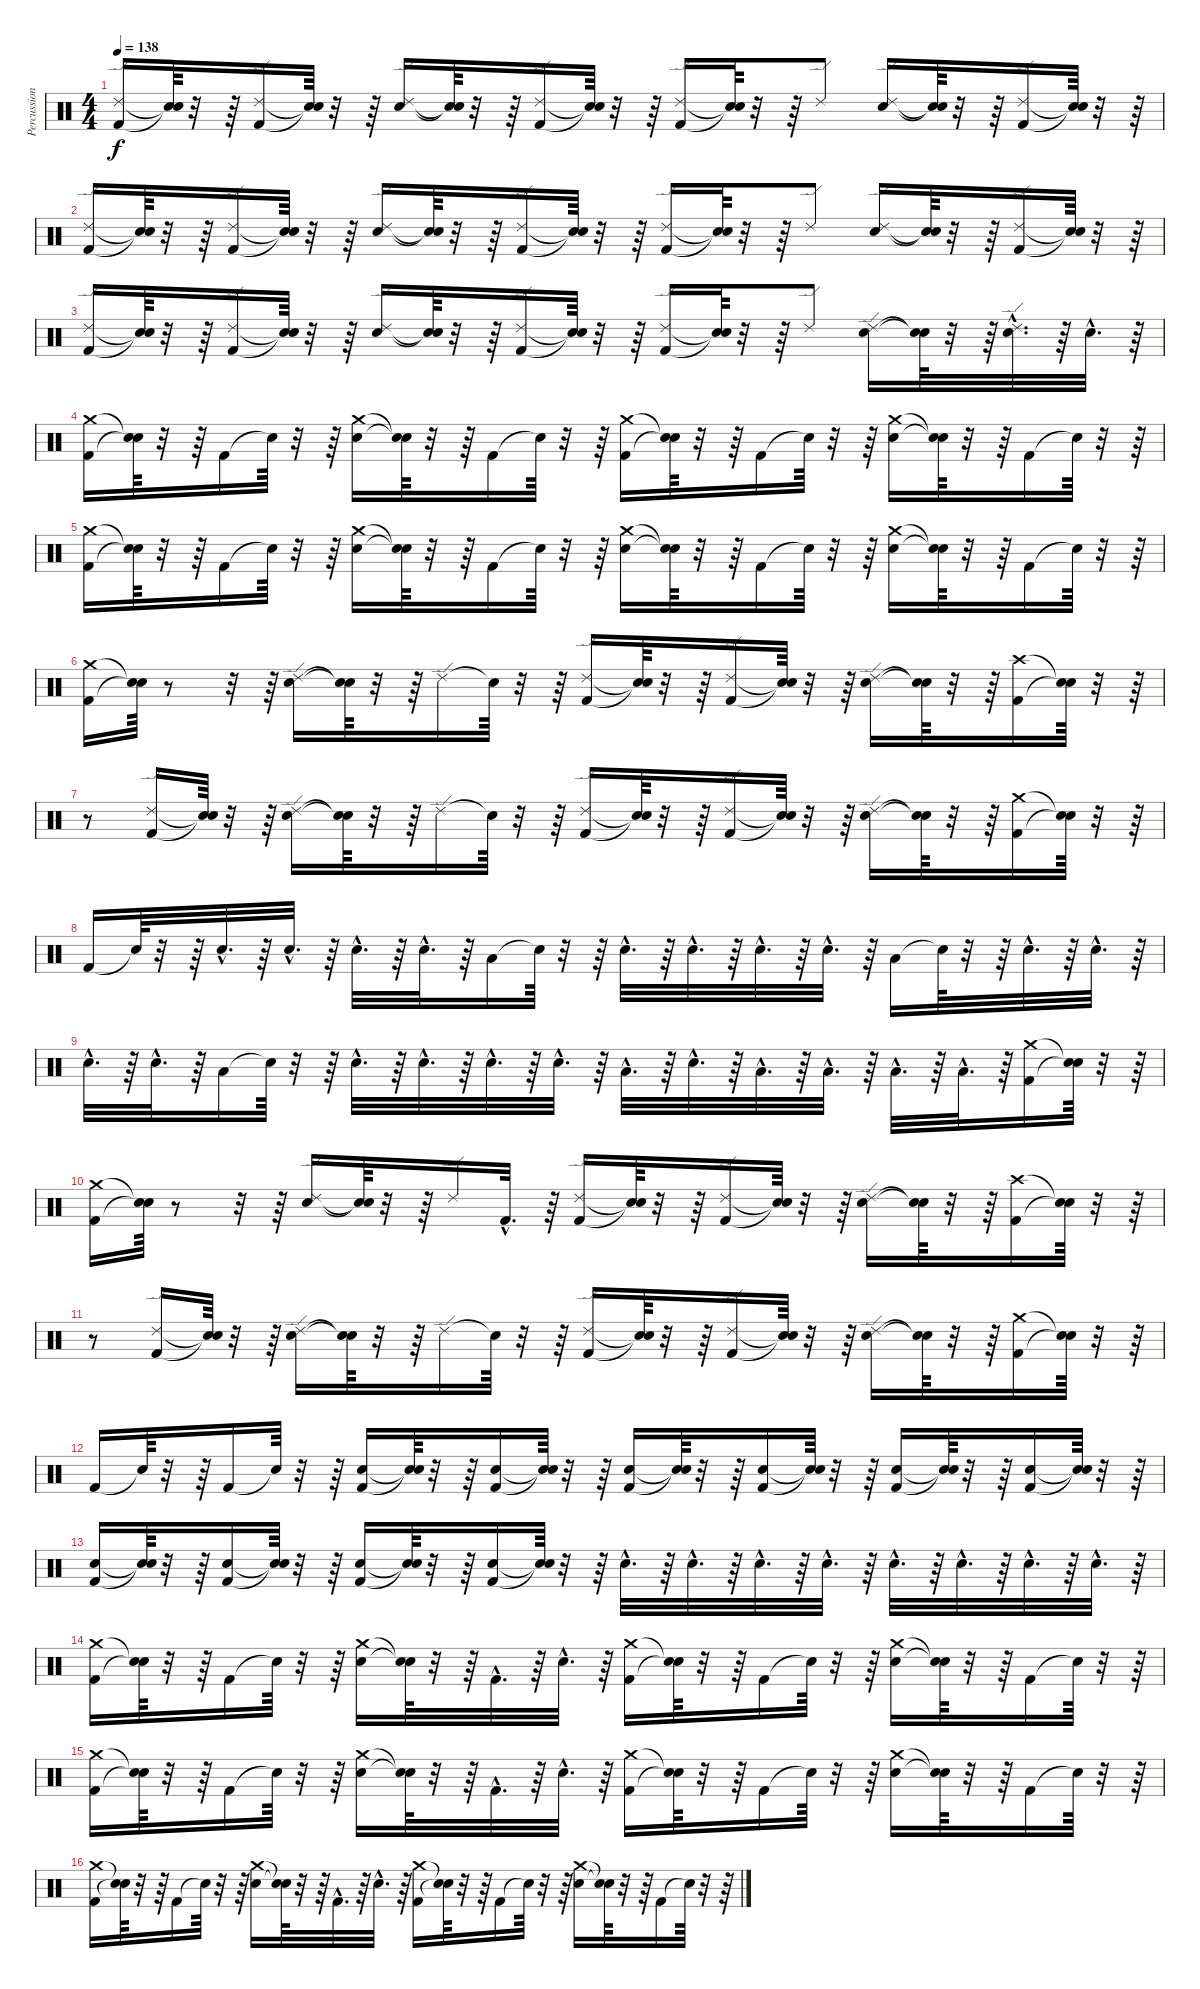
\track ("Percussions" "Percussion") {instrument percussion}
\staff {score}
\articulation defaults
\ts (4 4)
\tempo 138
\clef neutral
\ks c
("Kick (hit) 2" "Ride (edge) 2").16{dy f} ("Snare (hit)"{t} "Snare (hit)"{t}).64 r.32 r.64 ("Kick (hit) 2" "Ride (edge) 2").16 ("Snare (hit)"{t} "Snare (hit)"{t}).64 r.32 r.64 ("Electric Snare (hit)" "Ride (edge) 2").16 ("Snare (hit)"{t} "Snare (hit)"{t}).64 r.32 r.64 ("Kick (hit) 2" "Ride (edge) 2").16 ("Snare (hit)"{t} "Snare (hit)"{t}).64 r.32 r.64 ("Kick (hit) 2" "Ride (edge) 2").16 ("Snare (hit)"{t} "Snare (hit)"{t}).64 r.32 r.64 "Ride (edge) 2".8 ("Electric Snare (hit)" "Ride (edge) 2").16 ("Snare (hit)"{t} "Snare (hit)"{t}).64 r.32 r.64 ("Kick (hit) 2" "Ride (edge) 2").16 ("Snare (hit)"{t} "Snare (hit)"{t}).64 r.32 r.64 |
("Kick (hit) 2" "Ride (edge) 2").16 ("Snare (hit)"{t} "Snare (hit)"{t}).64 r.32 r.64 ("Kick (hit) 2" "Ride (edge) 2").16 ("Snare (hit)"{t} "Snare (hit)"{t}).64 r.32 r.64 ("Electric Snare (hit)" "Ride (edge) 2").16 ("Snare (hit)"{t} "Snare (hit)"{t}).64 r.32 r.64 ("Kick (hit) 2" "Ride (edge) 2").16 ("Snare (hit)"{t} "Snare (hit)"{t}).64 r.32 r.64 ("Kick (hit) 2" "Ride (edge) 2").16 ("Snare (hit)"{t} "Snare (hit)"{t}).64 r.32 r.64 "Ride (edge) 2".8 ("Electric Snare (hit)" "Ride (edge) 2").16 ("Snare (hit)"{t} "Snare (hit)"{t}).64 r.32 r.64 ("Kick (hit) 2" "Ride (edge) 2").16 ("Snare (hit)"{t} "Snare (hit)"{t}).64 r.32 r.64 |
("Kick (hit) 2" "Ride (edge) 2").16 ("Snare (hit)"{t} "Snare (hit)"{t}).64 r.32 r.64 ("Kick (hit) 2" "Ride (edge) 2").16 ("Snare (hit)"{t} "Snare (hit)"{t}).64 r.32 r.64 ("Electric Snare (hit)" "Ride (edge) 2").16 ("Snare (hit)"{t} "Snare (hit)"{t}).64 r.32 r.64 ("Kick (hit) 2" "Ride (edge) 2").16 ("Snare (hit)"{t} "Snare (hit)"{t}).64 r.32 r.64 ("Kick (hit) 2" "Ride (edge) 2").16 ("Snare (hit)"{t} "Snare (hit)"{t}).64 r.32 r.64 "Ride (edge) 2".8 ("Electric Snare (hit)" "Ride (edge) 2").16 ("Snare (hit)"{t} "Snare (hit)"{t}).64 r.32 r.64 ("Electric Snare (hit)"{hac} "Ride (edge) 2"{hac}).32{d} r.64 "Electric Snare (hit)"{hac}.32{d} r.64 |
("Crash medium (hit)" "Kick (hit) 2").16 ("Snare (hit)"{t} "Snare (hit)"{t}).64 r.32 r.64 "Kick (hit) 2".16 "Snare (hit)"{t}.64 r.32 r.64 ("Crash medium (hit)" "Electric Snare (hit)").16 ("Snare (hit)"{t} "Snare (hit)"{t}).64 r.32 r.64 "Kick (hit) 2".16 "Snare (hit)"{t}.64 r.32 r.64 ("Crash medium (hit)" "Kick (hit) 2").16 ("Snare (hit)"{t} "Snare (hit)"{t}).64 r.32 r.64 "Kick (hit) 2".16 "Snare (hit)"{t}.64 r.32 r.64 ("Crash medium (hit)" "Electric Snare (hit)").16 ("Snare (hit)"{t} "Snare (hit)"{t}).64 r.32 r.64 "Kick (hit) 2".16 "Snare (hit)"{t}.64 r.32 r.64 |
("Crash medium (hit)" "Kick (hit) 2").16 ("Snare (hit)"{t} "Snare (hit)"{t}).64 r.32 r.64 "Kick (hit) 2".16 "Snare (hit)"{t}.64 r.32 r.64 ("Crash medium (hit)" "Electric Snare (hit)").16 ("Snare (hit)"{t} "Snare (hit)"{t}).64 r.32 r.64 "Kick (hit) 2".16 "Snare (hit)"{t}.64 r.32 r.64 ("Electric Snare (hit)" "Crash medium (hit)").16 ("Snare (hit)"{t} "Snare (hit)"{t}).64 r.32 r.64 "Kick (hit) 2".16 "Snare (hit)"{t}.64 r.32 r.64 ("Electric Snare (hit)" "Crash medium (hit)").16 ("Snare (hit)"{t} "Snare (hit)"{t}).64 r.32 r.64 "Kick (hit) 2".16 "Snare (hit)"{t}.64 r.32 r.64 |
("Kick (hit) 2" "Crash medium (hit)").16 ("Snare (hit)"{t} "Snare (hit)"{t}).64 r.8 r.32 r.64 ("Electric Snare (hit)" "Ride (edge) 2").16 ("Snare (hit)"{t} "Snare (hit)"{t}).64 r.32 r.64 "Ride (edge) 2".16 "Snare (hit)"{t}.64 r.32 r.64 ("Kick (hit) 2" "Ride (edge) 2").16 ("Snare (hit)"{t} "Snare (hit)"{t}).64 r.32 r.64 ("Kick (hit) 2" "Ride (edge) 2").16 ("Snare (hit)"{t} "Snare (hit)"{t}).64 r.32 r.64 ("Electric Snare (hit)" "Ride (edge) 2").16 ("Snare (hit)"{t} "Snare (hit)"{t}).64 r.32 r.64 ("Kick (hit) 2" "Crash high (hit)").16 ("Snare (hit)"{t} "Snare (hit)"{t}).64 r.32 r.64 |
r.8 ("Kick (hit) 2" "Ride (edge) 2").16 ("Snare (hit)"{t} "Snare (hit)"{t}).64 r.32 r.64 ("Electric Snare (hit)" "Ride (edge) 2").16 ("Snare (hit)"{t} "Snare (hit)"{t}).64 r.32 r.64 "Ride (edge) 2".16 "Snare (hit)"{t}.64 r.32 r.64 ("Kick (hit) 2" "Ride (edge) 2").16 ("Snare (hit)"{t} "Snare (hit)"{t}).64 r.32 r.64 ("Kick (hit) 2" "Ride (edge) 2").16 ("Snare (hit)"{t} "Snare (hit)"{t}).64 r.32 r.64 ("Electric Snare (hit)" "Ride (edge) 2").16 ("Snare (hit)"{t} "Snare (hit)"{t}).64 r.32 r.64 ("Kick (hit) 2" "Crash medium (hit)").16 ("Snare (hit)"{t} "Snare (hit)"{t}).64 r.32 r.64 |
"Kick (hit) 2".16 "Snare (hit)"{t}.64 r.32 r.64 "Electric Snare (hit)"{hac}.32{d} r.64 "Electric Snare (hit)"{hac}.32{d} r.64 "Electric Snare (hit)"{hac}.32{d} r.64 "Electric Snare (hit)"{hac}.32{d} r.64 "Low Tom (hit)".16 "Snare (hit)"{t}.64 r.32 r.64 "Electric Snare (hit)"{hac}.32{d} r.64 "Electric Snare (hit)"{hac}.32{d} r.64 "Electric Snare (hit)"{hac}.32{d} r.64 "Electric Snare (hit)"{hac}.32{d} r.64 "Low Tom (hit)".16 "Snare (hit)"{t}.64 r.32 r.64 "Electric Snare (hit)"{hac}.32{d} r.64 "Electric Snare (hit)"{hac}.32{d} r.64 |
"Electric Snare (hit)"{hac}.32{d} r.64 "Electric Snare (hit)"{hac}.32{d} r.64 "Low Tom (hit)".16 "Snare (hit)"{t}.64 r.32 r.64 "Electric Snare (hit)"{hac}.32{d} r.64 "Electric Snare (hit)"{hac}.32{d} r.64 "Electric Snare (hit)"{hac}.32{d} r.64 "Electric Snare (hit)"{hac}.32{d} r.64 "Low Tom (hit)"{hac}.32{d} r.64 "Electric Snare (hit)"{hac}.32{d} r.64 "Low Tom (hit)"{hac}.32{d} r.64 "Low Tom (hit)"{hac}.32{d} r.64 "Low Tom (hit)"{hac}.32{d} r.64 "Low Tom (hit)"{hac}.32{d} r.64 ("Kick (hit) 2" "Crash medium (hit)").16 ("Snare (hit)"{t} "Snare (hit)"{t}).64 r.32 r.64 |
("Kick (hit) 2" "Crash medium (hit)").16 ("Snare (hit)"{t} "Snare (hit)"{t}).64 r.8 r.32 r.64 ("Electric Snare (hit)" "Ride (edge) 2").16 ("Snare (hit)"{t} "Snare (hit)"{t}).64 r.32 r.64 "Ride (edge) 2".16 "Kick (hit) 2"{hac}.32{d} r.64 ("Kick (hit) 2" "Ride (edge) 2").16 ("Snare (hit)"{t} "Snare (hit)"{t}).64 r.32 r.64 ("Kick (hit) 2" "Ride (edge) 2").16 ("Snare (hit)"{t} "Snare (hit)"{t}).64 r.32 r.64 ("Electric Snare (hit)" "Ride (edge) 2").16 ("Snare (hit)"{t} "Snare (hit)"{t}).64 r.32 r.64 ("Kick (hit) 2" "Crash high (hit)").16 ("Snare (hit)"{t} "Snare (hit)"{t}).64 r.32 r.64 |
r.8 ("Kick (hit) 2" "Ride (edge) 2").16 ("Snare (hit)"{t} "Snare (hit)"{t}).64 r.32 r.64 ("Electric Snare (hit)" "Ride (edge) 2").16 ("Snare (hit)"{t} "Snare (hit)"{t}).64 r.32 r.64 "Ride (edge) 2".16 "Snare (hit)"{t}.64 r.32 r.64 ("Kick (hit) 2" "Ride (edge) 2").16 ("Snare (hit)"{t} "Snare (hit)"{t}).64 r.32 r.64 ("Kick (hit) 2" "Ride (edge) 2").16 ("Snare (hit)"{t} "Snare (hit)"{t}).64 r.32 r.64 ("Electric Snare (hit)" "Ride (edge) 2").16 ("Snare (hit)"{t} "Snare (hit)"{t}).64 r.32 r.64 ("Kick (hit) 2" "Crash medium (hit)").16 ("Snare (hit)"{t} "Snare (hit)"{t}).64 r.32 r.64 |
"Kick (hit) 2".16 "Snare (hit)"{t}.64 r.32 r.64 "Kick (hit) 2".16 "Snare (hit)"{t}.64 r.32 r.64 ("Electric Snare (hit)" "Kick (hit) 2").16 ("Snare (hit)"{t} "Snare (hit)"{t}).64 r.32 r.64 ("Electric Snare (hit)" "Kick (hit) 2").16 ("Snare (hit)"{t} "Snare (hit)"{t}).64 r.32 r.64 ("Electric Snare (hit)" "Kick (hit) 2").16 ("Snare (hit)"{t} "Snare (hit)"{t}).64 r.32 r.64 ("Electric Snare (hit)" "Kick (hit) 2").16 ("Snare (hit)"{t} "Snare (hit)"{t}).64 r.32 r.64 ("Electric Snare (hit)" "Kick (hit) 2").16 ("Snare (hit)"{t} "Snare (hit)"{t}).64 r.32 r.64 ("Electric Snare (hit)" "Kick (hit) 2").16 ("Snare (hit)"{t} "Snare (hit)"{t}).64 r.32 r.64 |
("Electric Snare (hit)" "Kick (hit) 2").16 ("Snare (hit)"{t} "Snare (hit)"{t}).64 r.32 r.64 ("Electric Snare (hit)" "Kick (hit) 2").16 ("Snare (hit)"{t} "Snare (hit)"{t}).64 r.32 r.64 ("Electric Snare (hit)" "Kick (hit) 2").16 ("Snare (hit)"{t} "Snare (hit)"{t}).64 r.32 r.64 ("Electric Snare (hit)" "Kick (hit) 2").16 ("Snare (hit)"{t} "Snare (hit)"{t}).64 r.32 r.64 "Electric Snare (hit)"{hac}.32{d} r.64 "Electric Snare (hit)"{hac}.32{d} r.64 "Electric Snare (hit)"{hac}.32{d} r.64 "Electric Snare (hit)"{hac}.32{d} r.64 "Electric Snare (hit)"{hac}.32{d} r.64 "Electric Snare (hit)"{hac}.32{d} r.64 "Electric Snare (hit)"{hac}.32{d} r.64 "Electric Snare (hit)"{hac}.32{d} r.64 |
("Kick (hit) 2" "Crash medium (hit)").16 ("Snare (hit)"{t} "Snare (hit)"{t}).64 r.32 r.64 "Kick (hit) 2".16 "Snare (hit)"{t}.64 r.32 r.64 ("Electric Snare (hit)" "Crash medium (hit)").16 ("Snare (hit)"{t} "Snare (hit)"{t}).64 r.32 r.64 "Kick (hit) 2"{hac}.32{d} r.64 "Electric Snare (hit)"{hac}.32{d} r.64 ("Kick (hit) 2" "Crash medium (hit)").16 ("Snare (hit)"{t} "Snare (hit)"{t}).64 r.32 r.64 "Kick (hit) 2".16 "Snare (hit)"{t}.64 r.32 r.64 ("Electric Snare (hit)" "Crash medium (hit)").16 ("Snare (hit)"{t} "Snare (hit)"{t}).64 r.32 r.64 "Kick (hit) 2".16 "Snare (hit)"{t}.64 r.32 r.64 |
("Kick (hit) 2" "Crash medium (hit)").16 ("Snare (hit)"{t} "Snare (hit)"{t}).64 r.32 r.64 "Kick (hit) 2".16 "Snare (hit)"{t}.64 r.32 r.64 ("Electric Snare (hit)" "Crash medium (hit)").16 ("Snare (hit)"{t} "Snare (hit)"{t}).64 r.32 r.64 "Kick (hit) 2"{hac}.32{d} r.64 "Electric Snare (hit)"{hac}.32{d} r.64 ("Kick (hit) 2" "Crash medium (hit)").16 ("Snare (hit)"{t} "Snare (hit)"{t}).64 r.32 r.64 "Kick (hit) 2".16 "Snare (hit)"{t}.64 r.32 r.64 ("Electric Snare (hit)" "Crash medium (hit)").16 ("Snare (hit)"{t} "Snare (hit)"{t}).64 r.32 r.64 "Kick (hit) 2".16 "Snare (hit)"{t}.64 r.32 r.64 |
("Kick (hit) 2" "Crash medium (hit)").16 ("Snare (hit)"{t} "Snare (hit)"{t}).64 r.32 r.64 "Kick (hit) 2".16 "Snare (hit)"{t}.64 r.32 r.64 ("Electric Snare (hit)" "Crash medium (hit)").16 ("Snare (hit)"{t} "Snare (hit)"{t}).64 r.32 r.64 "Kick (hit) 2"{hac}.32{d} r.64 "Electric Snare (hit)"{hac}.32{d} r.64 ("Kick (hit) 2" "Crash medium (hit)").16 ("Snare (hit)"{t} "Snare (hit)"{t}).64 r.32 r.64 "Kick (hit) 2".16 "Snare (hit)"{t}.64 r.32 r.64 ("Electric Snare (hit)" "Crash medium (hit)").16 ("Snare (hit)"{t} "Snare (hit)"{t}).64 r.32 r.64 "Kick (hit) 2".16 "Snare (hit)"{t}.64 r.32 r.64
